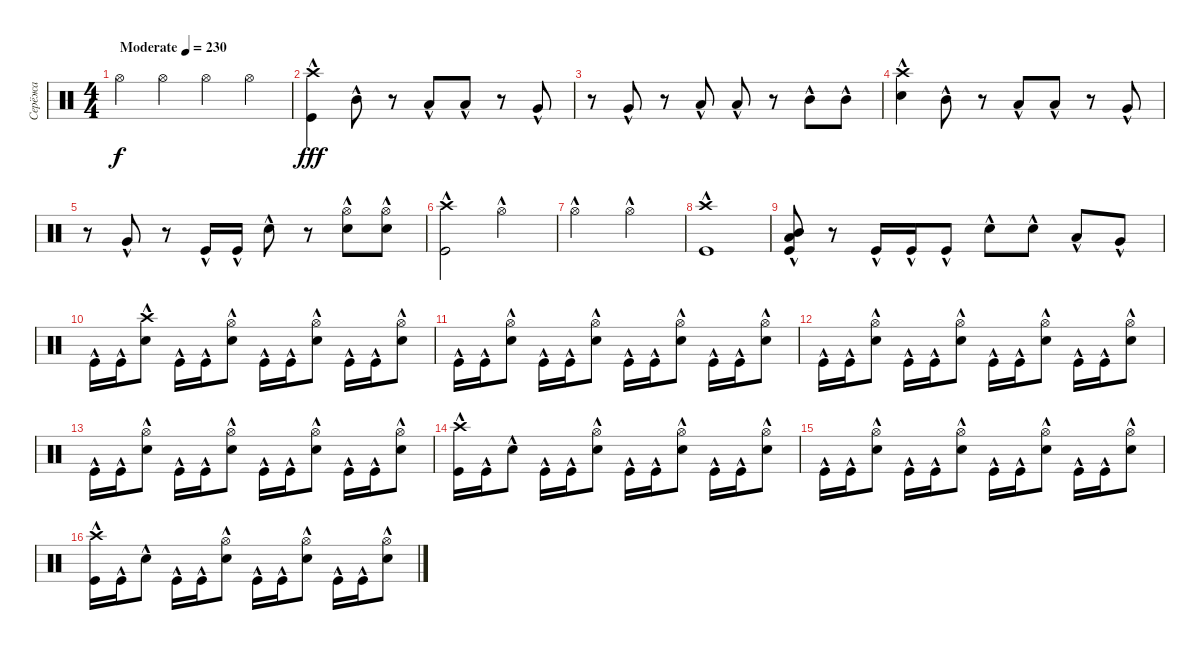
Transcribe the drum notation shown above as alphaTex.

\track ("Серёжа" "Серёжа") {instrument percussion}
\staff {score}
\articulation defaults
\ts (4 4)
\tempo (230 "Moderate")
\clef neutral
\ks c "Hi-Hat (open)".4{dy f} "Hi-Hat (open)".4 "Hi-Hat (open)".4 "Hi-Hat (open)".4
|
("Crash high (hit)"{hac} "Kick (hit)"{hac}).4{dy fff} "Mid Tom (hit)"{hac}.8 r.8 "Low Tom (hit)"{hac}.8 "Low Tom (hit)"{hac}.8 r.8 "Very Low Tom (hit)"{hac}.8 |
r.8 "Very Low Tom (hit)"{hac}.8 r.8 "Low Tom (hit)"{hac}.8 "Low Tom (hit)"{hac}.8 r.8 "Mid Tom (hit)"{hac}.8 "Mid Tom (hit)"{hac}.8 |
("Crash high (hit)"{hac} "Snare (hit) 2"{hac}).4 "Mid Tom (hit)"{hac}.8 r.8 "Low Tom (hit)"{hac}.8 "Low Tom (hit)"{hac}.8 r.8 "Very Low Tom (hit)"{hac}.8 |
r.8 "Very Low Tom (hit)"{hac}.8 r.8 "Kick (hit)"{hac}.16 "Kick (hit)"{hac}.16 "Snare (hit) 2"{hac}.8 r.8 ("Hi-Hat (open)" "Snare (hit) 2"{hac}).8 ("Hi-Hat (open)" "Snare (hit) 2"{hac}).8 |
("Crash high (hit)"{hac} "Kick (hit)"{hac}).2 "Hi-Hat (open)"{hac}.2 |
"Hi-Hat (open)"{hac}.2 "Hi-Hat (open)"{hac}.2 |
("Crash high (hit)"{hac} "Kick (hit)"{hac}).1 |
("Mid Tom (hit)"{hac} "Low Tom (hit)"{hac} "Kick (hit)"{hac}).8 r.8 "Kick (hit)"{hac}.16 "Kick (hit)"{hac}.16 "Kick (hit)"{hac}.8 "Snare (hit) 2"{hac}.8 "Snare (hit) 2"{hac}.8 "Low Tom (hit)"{hac}.8 "Very Low Tom (hit)"{hac}.8 |
"Kick (hit)"{hac}.16 "Kick (hit)"{hac}.16 ("Crash high (hit)"{hac} "Snare (hit) 2"{hac}).8 "Kick (hit)"{hac}.16 "Kick (hit)"{hac}.16 ("Hi-Hat (open)" "Snare (hit) 2"{hac}).8 "Kick (hit)"{hac}.16 "Kick (hit)"{hac}.16 ("Hi-Hat (open)" "Snare (hit) 2"{hac}).8 "Kick (hit)"{hac}.16 "Kick (hit)"{hac}.16 ("Hi-Hat (open)" "Snare (hit) 2"{hac}).8 |
"Kick (hit)"{hac}.16 "Kick (hit)"{hac}.16 ("Hi-Hat (open)" "Snare (hit) 2"{hac}).8 "Kick (hit)"{hac}.16 "Kick (hit)"{hac}.16 ("Hi-Hat (open)" "Snare (hit) 2"{hac}).8 "Kick (hit)"{hac}.16 "Kick (hit)"{hac}.16 ("Hi-Hat (open)" "Snare (hit) 2"{hac}).8 "Kick (hit)"{hac}.16 "Kick (hit)"{hac}.16 ("Hi-Hat (open)" "Snare (hit) 2"{hac}).8 |
"Kick (hit)"{hac}.16 "Kick (hit)"{hac}.16 ("Hi-Hat (open)" "Snare (hit) 2"{hac}).8 "Kick (hit)"{hac}.16 "Kick (hit)"{hac}.16 ("Hi-Hat (open)" "Snare (hit) 2"{hac}).8 "Kick (hit)"{hac}.16 "Kick (hit)"{hac}.16 ("Hi-Hat (open)" "Snare (hit) 2"{hac}).8 "Kick (hit)"{hac}.16 "Kick (hit)"{hac}.16 ("Hi-Hat (open)" "Snare (hit) 2"{hac}).8 |
"Kick (hit)"{hac}.16 "Kick (hit)"{hac}.16 ("Hi-Hat (open)" "Snare (hit) 2"{hac}).8 "Kick (hit)"{hac}.16 "Kick (hit)"{hac}.16 ("Hi-Hat (open)" "Snare (hit) 2"{hac}).8 "Kick (hit)"{hac}.16 "Kick (hit)"{hac}.16 ("Hi-Hat (open)" "Snare (hit) 2"{hac}).8 "Kick (hit)"{hac}.16 "Kick (hit)"{hac}.16 ("Hi-Hat (open)" "Snare (hit) 2"{hac}).8 |
("Crash high (hit)"{hac} "Kick (hit)"{hac}).16 "Kick (hit)"{hac}.16 "Snare (hit) 2"{hac}.8 "Kick (hit)"{hac}.16 "Kick (hit)"{hac}.16 ("Hi-Hat (open)" "Snare (hit) 2"{hac}).8 "Kick (hit)"{hac}.16 "Kick (hit)"{hac}.16 ("Hi-Hat (open)" "Snare (hit) 2"{hac}).8 "Kick (hit)"{hac}.16 "Kick (hit)"{hac}.16 ("Hi-Hat (open)" "Snare (hit) 2"{hac}).8 |
"Kick (hit)"{hac}.16 "Kick (hit)"{hac}.16 ("Hi-Hat (open)" "Snare (hit) 2"{hac}).8 "Kick (hit)"{hac}.16 "Kick (hit)"{hac}.16 ("Hi-Hat (open)" "Snare (hit) 2"{hac}).8 "Kick (hit)"{hac}.16 "Kick (hit)"{hac}.16 ("Hi-Hat (open)" "Snare (hit) 2"{hac}).8 "Kick (hit)"{hac}.16 "Kick (hit)"{hac}.16 ("Hi-Hat (open)" "Snare (hit) 2"{hac}).8 |
("Crash high (hit)"{hac} "Kick (hit)"{hac}).16 "Kick (hit)"{hac}.16 "Snare (hit) 2"{hac}.8 "Kick (hit)"{hac}.16 "Kick (hit)"{hac}.16 ("Hi-Hat (open)" "Snare (hit) 2"{hac}).8 "Kick (hit)"{hac}.16 "Kick (hit)"{hac}.16 ("Hi-Hat (open)" "Snare (hit) 2"{hac}).8 "Kick (hit)"{hac}.16 "Kick (hit)"{hac}.16 ("Hi-Hat (open)" "Snare (hit) 2"{hac}).8
